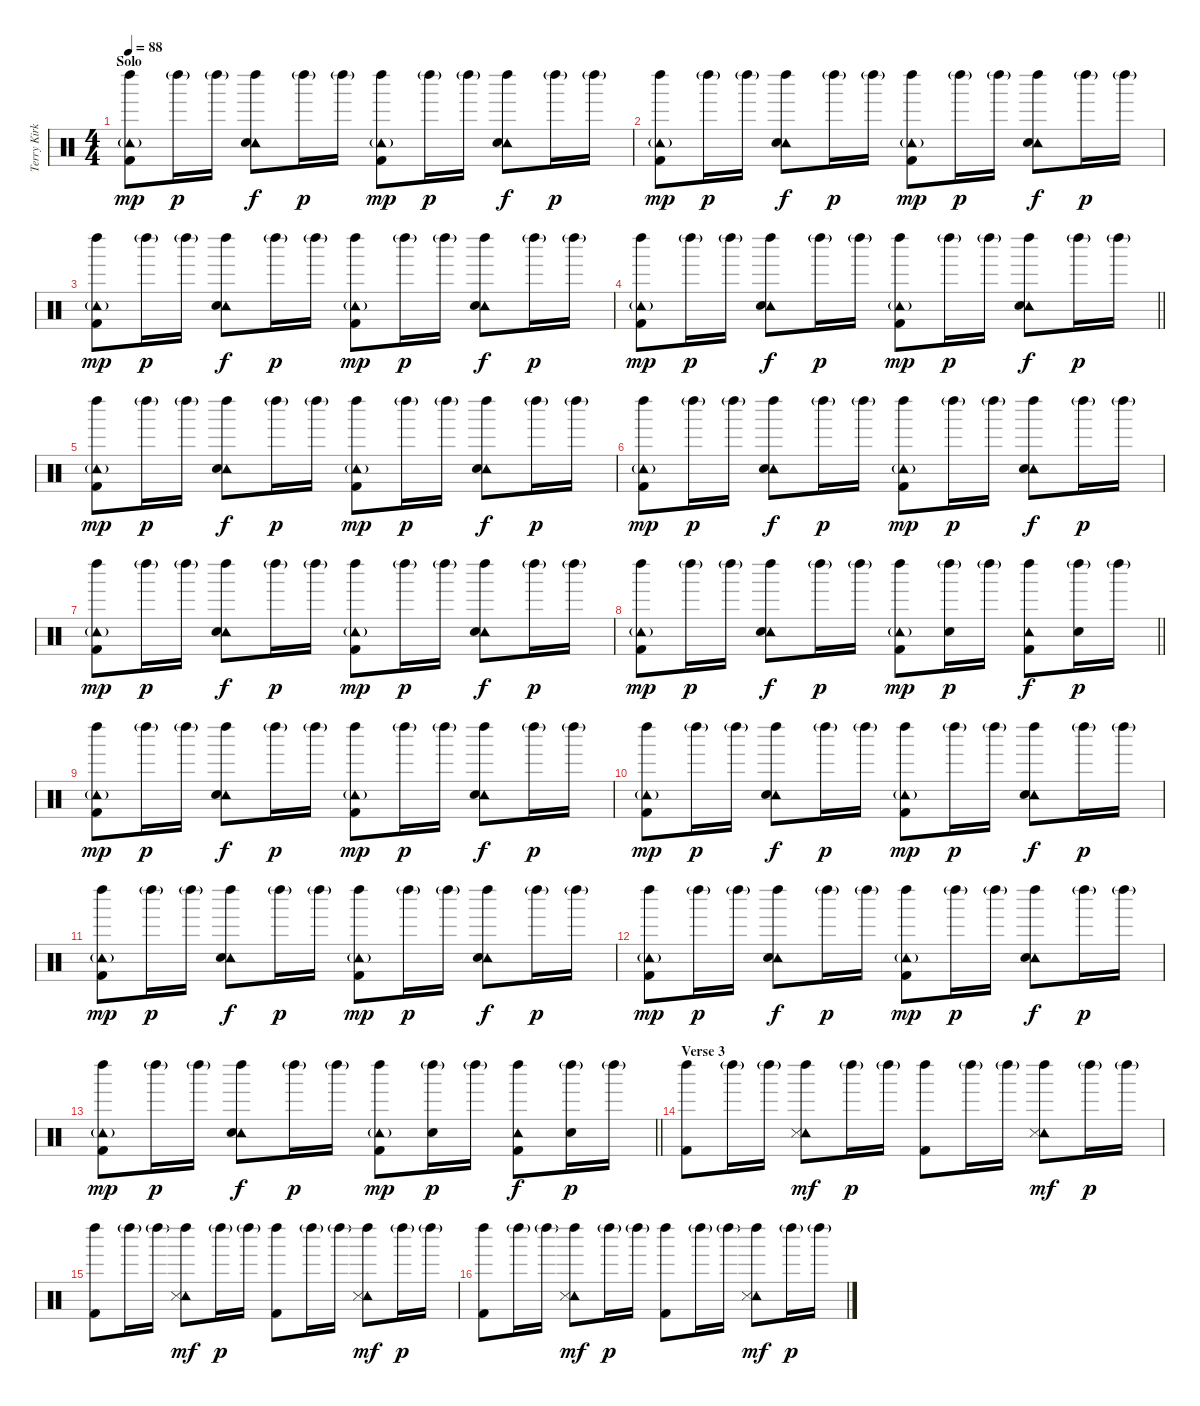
\track ("Terry Kirkbride " "Terry Kirk") {instrument percussion}
\staff {score}
\articulation defaults
\ts (4 4)
\section ("" "Solo")
\tempo 88
\clef neutral
\ks c
("Left Maraca (hit)" "Tambourine (hit)"{g} "Kick (hit) 2").8{dy mp} "Left Maraca (hit)"{g}.16{dy p} "Left Maraca (hit)"{g}.16 ("Left Maraca (hit)" "Tambourine (hit)" "Snare (hit) 2").8{dy f} "Left Maraca (hit)"{g}.16{dy p} "Left Maraca (hit)"{g}.16 ("Left Maraca (hit)" "Tambourine (hit)"{g} "Kick (hit) 2").8{dy mp} "Left Maraca (hit)"{g}.16{dy p} "Left Maraca (hit)"{g}.16 ("Left Maraca (hit)" "Tambourine (hit)" "Snare (hit) 2").8{dy f} "Left Maraca (hit)"{g}.16{dy p} "Left Maraca (hit)"{g}.16 |
("Left Maraca (hit)" "Tambourine (hit)"{g} "Kick (hit) 2").8{dy mp} "Left Maraca (hit)"{g}.16{dy p} "Left Maraca (hit)"{g}.16 ("Left Maraca (hit)" "Tambourine (hit)" "Snare (hit) 2").8{dy f} "Left Maraca (hit)"{g}.16{dy p} "Left Maraca (hit)"{g}.16 ("Left Maraca (hit)" "Tambourine (hit)"{g} "Kick (hit) 2").8{dy mp} "Left Maraca (hit)"{g}.16{dy p} "Left Maraca (hit)"{g}.16 ("Left Maraca (hit)" "Tambourine (hit)" "Snare (hit) 2").8{dy f} "Left Maraca (hit)"{g}.16{dy p} "Left Maraca (hit)"{g}.16 |
("Left Maraca (hit)" "Tambourine (hit)"{g} "Kick (hit) 2").8{dy mp} "Left Maraca (hit)"{g}.16{dy p} "Left Maraca (hit)"{g}.16 ("Left Maraca (hit)" "Tambourine (hit)" "Snare (hit) 2").8{dy f} "Left Maraca (hit)"{g}.16{dy p} "Left Maraca (hit)"{g}.16 ("Left Maraca (hit)" "Tambourine (hit)"{g} "Kick (hit) 2").8{dy mp} "Left Maraca (hit)"{g}.16{dy p} "Left Maraca (hit)"{g}.16 ("Left Maraca (hit)" "Tambourine (hit)" "Snare (hit) 2").8{dy f} "Left Maraca (hit)"{g}.16{dy p} "Left Maraca (hit)"{g}.16 |
\barLineRight lightlight
("Left Maraca (hit)" "Tambourine (hit)"{g} "Kick (hit) 2").8{dy mp} "Left Maraca (hit)"{g}.16{dy p} "Left Maraca (hit)"{g}.16 ("Left Maraca (hit)" "Tambourine (hit)" "Snare (hit) 2").8{dy f} "Left Maraca (hit)"{g}.16{dy p} "Left Maraca (hit)"{g}.16 ("Left Maraca (hit)" "Tambourine (hit)"{g} "Kick (hit) 2").8{dy mp} "Left Maraca (hit)"{g}.16{dy p} "Left Maraca (hit)"{g}.16 ("Left Maraca (hit)" "Tambourine (hit)" "Snare (hit) 2").8{dy f} "Left Maraca (hit)"{g}.16{dy p} "Left Maraca (hit)"{g}.16 |
("Left Maraca (hit)" "Tambourine (hit)"{g} "Kick (hit) 2").8{dy mp} "Left Maraca (hit)"{g}.16{dy p} "Left Maraca (hit)"{g}.16 ("Left Maraca (hit)" "Tambourine (hit)" "Snare (hit) 2").8{dy f} "Left Maraca (hit)"{g}.16{dy p} "Left Maraca (hit)"{g}.16 ("Left Maraca (hit)" "Tambourine (hit)"{g} "Kick (hit) 2").8{dy mp} "Left Maraca (hit)"{g}.16{dy p} "Left Maraca (hit)"{g}.16 ("Left Maraca (hit)" "Tambourine (hit)" "Snare (hit) 2").8{dy f} "Left Maraca (hit)"{g}.16{dy p} "Left Maraca (hit)"{g}.16 |
("Left Maraca (hit)" "Tambourine (hit)"{g} "Kick (hit) 2").8{dy mp} "Left Maraca (hit)"{g}.16{dy p} "Left Maraca (hit)"{g}.16 ("Left Maraca (hit)" "Tambourine (hit)" "Snare (hit) 2").8{dy f} "Left Maraca (hit)"{g}.16{dy p} "Left Maraca (hit)"{g}.16 ("Left Maraca (hit)" "Tambourine (hit)"{g} "Kick (hit) 2").8{dy mp} "Left Maraca (hit)"{g}.16{dy p} "Left Maraca (hit)"{g}.16 ("Left Maraca (hit)" "Tambourine (hit)" "Snare (hit) 2").8{dy f} "Left Maraca (hit)"{g}.16{dy p} "Left Maraca (hit)"{g}.16 |
("Left Maraca (hit)" "Tambourine (hit)"{g} "Kick (hit) 2").8{dy mp} "Left Maraca (hit)"{g}.16{dy p} "Left Maraca (hit)"{g}.16 ("Left Maraca (hit)" "Tambourine (hit)" "Snare (hit) 2").8{dy f} "Left Maraca (hit)"{g}.16{dy p} "Left Maraca (hit)"{g}.16 ("Left Maraca (hit)" "Tambourine (hit)"{g} "Kick (hit) 2").8{dy mp} "Left Maraca (hit)"{g}.16{dy p} "Left Maraca (hit)"{g}.16 ("Left Maraca (hit)" "Tambourine (hit)" "Snare (hit) 2").8{dy f} "Left Maraca (hit)"{g}.16{dy p} "Left Maraca (hit)"{g}.16 |
\barLineRight lightlight
("Left Maraca (hit)" "Tambourine (hit)"{g} "Kick (hit) 2").8{dy mp} "Left Maraca (hit)"{g}.16{dy p} "Left Maraca (hit)"{g}.16 ("Left Maraca (hit)" "Tambourine (hit)" "Snare (hit) 2").8{dy f} "Left Maraca (hit)"{g}.16{dy p} "Left Maraca (hit)"{g}.16 ("Left Maraca (hit)" "Tambourine (hit)"{g} "Kick (hit) 2").8{dy mp} ("Left Maraca (hit)"{g} "Snare (hit) 2").16{dy p} "Left Maraca (hit)"{g}.16 ("Left Maraca (hit)" "Tambourine (hit)" "Kick (hit) 2").8{dy f} ("Left Maraca (hit)"{g} "Snare (hit) 2").16{dy p} "Left Maraca (hit)"{g}.16 |
("Left Maraca (hit)" "Tambourine (hit)"{g} "Kick (hit) 2").8{dy mp} "Left Maraca (hit)"{g}.16{dy p} "Left Maraca (hit)"{g}.16 ("Left Maraca (hit)" "Tambourine (hit)" "Snare (hit) 2").8{dy f} "Left Maraca (hit)"{g}.16{dy p} "Left Maraca (hit)"{g}.16 ("Left Maraca (hit)" "Tambourine (hit)"{g} "Kick (hit) 2").8{dy mp} "Left Maraca (hit)"{g}.16{dy p} "Left Maraca (hit)"{g}.16 ("Left Maraca (hit)" "Tambourine (hit)" "Snare (hit) 2").8{dy f} "Left Maraca (hit)"{g}.16{dy p} "Left Maraca (hit)"{g}.16 |
("Left Maraca (hit)" "Tambourine (hit)"{g} "Kick (hit) 2").8{dy mp} "Left Maraca (hit)"{g}.16{dy p} "Left Maraca (hit)"{g}.16 ("Left Maraca (hit)" "Tambourine (hit)" "Snare (hit) 2").8{dy f} "Left Maraca (hit)"{g}.16{dy p} "Left Maraca (hit)"{g}.16 ("Left Maraca (hit)" "Tambourine (hit)"{g} "Kick (hit) 2").8{dy mp} "Left Maraca (hit)"{g}.16{dy p} "Left Maraca (hit)"{g}.16 ("Left Maraca (hit)" "Tambourine (hit)" "Snare (hit) 2").8{dy f} "Left Maraca (hit)"{g}.16{dy p} "Left Maraca (hit)"{g}.16 |
("Left Maraca (hit)" "Tambourine (hit)"{g} "Kick (hit) 2").8{dy mp} "Left Maraca (hit)"{g}.16{dy p} "Left Maraca (hit)"{g}.16 ("Left Maraca (hit)" "Tambourine (hit)" "Snare (hit) 2").8{dy f} "Left Maraca (hit)"{g}.16{dy p} "Left Maraca (hit)"{g}.16 ("Left Maraca (hit)" "Tambourine (hit)"{g} "Kick (hit) 2").8{dy mp} "Left Maraca (hit)"{g}.16{dy p} "Left Maraca (hit)"{g}.16 ("Left Maraca (hit)" "Tambourine (hit)" "Snare (hit) 2").8{dy f} "Left Maraca (hit)"{g}.16{dy p} "Left Maraca (hit)"{g}.16 |
("Left Maraca (hit)" "Tambourine (hit)"{g} "Kick (hit) 2").8{dy mp} "Left Maraca (hit)"{g}.16{dy p} "Left Maraca (hit)"{g}.16 ("Left Maraca (hit)" "Tambourine (hit)" "Snare (hit) 2").8{dy f} "Left Maraca (hit)"{g}.16{dy p} "Left Maraca (hit)"{g}.16 ("Left Maraca (hit)" "Tambourine (hit)"{g} "Kick (hit) 2").8{dy mp} "Left Maraca (hit)"{g}.16{dy p} "Left Maraca (hit)"{g}.16 ("Left Maraca (hit)" "Tambourine (hit)" "Snare (hit) 2").8{dy f} "Left Maraca (hit)"{g}.16{dy p} "Left Maraca (hit)"{g}.16 |
\barLineRight lightlight
("Left Maraca (hit)" "Tambourine (hit)"{g} "Kick (hit) 2").8{dy mp} "Left Maraca (hit)"{g}.16{dy p} "Left Maraca (hit)"{g}.16 ("Left Maraca (hit)" "Tambourine (hit)" "Snare (hit) 2").8{dy f} "Left Maraca (hit)"{g}.16{dy p} "Left Maraca (hit)"{g}.16 ("Left Maraca (hit)" "Tambourine (hit)"{g} "Kick (hit) 2").8{dy mp} ("Left Maraca (hit)"{g} "Snare (hit) 2").16{dy p} "Left Maraca (hit)"{g}.16 ("Left Maraca (hit)" "Tambourine (hit)" "Kick (hit) 2").8{dy f} ("Left Maraca (hit)"{g} "Snare (hit) 2").16{dy p} "Left Maraca (hit)"{g}.16 |
\section ("" "Verse 3")
("Left Maraca (hit)" "Kick (hit) 2").8 "Left Maraca (hit)"{g}.16 "Left Maraca (hit)"{g}.16 ("Left Maraca (hit)" "Tambourine (hit)" "Snare (side stick) 3").8{dy mf} "Left Maraca (hit)"{g}.16{dy p} "Left Maraca (hit)"{g}.16 ("Left Maraca (hit)" "Kick (hit) 2").8 "Left Maraca (hit)"{g}.16 "Left Maraca (hit)"{g}.16 ("Left Maraca (hit)" "Tambourine (hit)" "Snare (side stick) 3").8{dy mf} "Left Maraca (hit)"{g}.16{dy p} "Left Maraca (hit)"{g}.16 |
("Left Maraca (hit)" "Kick (hit) 2").8 "Left Maraca (hit)"{g}.16 "Left Maraca (hit)"{g}.16 ("Left Maraca (hit)" "Tambourine (hit)" "Snare (side stick) 3").8{dy mf} "Left Maraca (hit)"{g}.16{dy p} "Left Maraca (hit)"{g}.16 ("Left Maraca (hit)" "Kick (hit) 2").8 "Left Maraca (hit)"{g}.16 "Left Maraca (hit)"{g}.16 ("Left Maraca (hit)" "Tambourine (hit)" "Snare (side stick) 3").8{dy mf} "Left Maraca (hit)"{g}.16{dy p} "Left Maraca (hit)"{g}.16 |
("Left Maraca (hit)" "Kick (hit) 2").8 "Left Maraca (hit)"{g}.16 "Left Maraca (hit)"{g}.16 ("Left Maraca (hit)" "Tambourine (hit)" "Snare (side stick) 3").8{dy mf} "Left Maraca (hit)"{g}.16{dy p} "Left Maraca (hit)"{g}.16 ("Left Maraca (hit)" "Kick (hit) 2").8 "Left Maraca (hit)"{g}.16 "Left Maraca (hit)"{g}.16 ("Left Maraca (hit)" "Tambourine (hit)" "Snare (side stick) 3").8{dy mf} "Left Maraca (hit)"{g}.16{dy p} "Left Maraca (hit)"{g}.16
